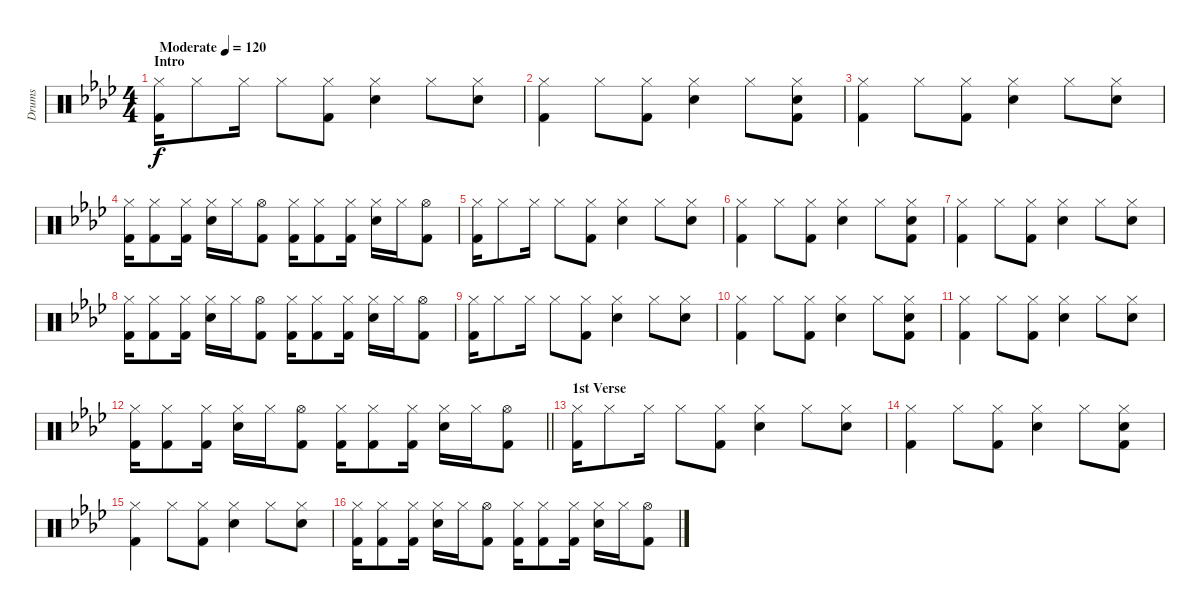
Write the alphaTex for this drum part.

\track ("Drums" "Drums") {instrument percussion}
\staff {score}
\articulation defaults
\ts (4 4)
\section ("" "Intro")
\tempo (120 "Moderate")
\clef neutral
\ks fminor
("Hi-Hat (closed)" "Kick (hit) 2").16{dy f} "Hi-Hat (closed)".8 "Hi-Hat (closed)".16 "Hi-Hat (closed)".8 ("Hi-Hat (closed)" "Kick (hit) 2").8 ("Hi-Hat (closed)" "Snare (hit) 2").4 "Hi-Hat (closed)".8 ("Hi-Hat (closed)" "Snare (hit) 2").8 |
("Hi-Hat (closed)" "Kick (hit) 2").4 "Hi-Hat (closed)".8 ("Hi-Hat (closed)" "Kick (hit) 2").8 ("Hi-Hat (closed)" "Snare (hit) 2").4 "Hi-Hat (closed)".8 ("Hi-Hat (closed)" "Snare (hit) 2" "Kick (hit) 2").8 |
("Hi-Hat (closed)" "Kick (hit) 2").4 "Hi-Hat (closed)".8 ("Hi-Hat (closed)" "Kick (hit) 2").8 ("Hi-Hat (closed)" "Snare (hit) 2").4 "Hi-Hat (closed)".8 ("Hi-Hat (closed)" "Snare (hit) 2").8 |
("Hi-Hat (closed)" "Kick (hit) 2").16 ("Hi-Hat (closed)" "Kick (hit) 2").8 ("Hi-Hat (closed)" "Kick (hit) 2").16 ("Hi-Hat (closed)" "Snare (hit) 2").16 "Hi-Hat (closed)".16 ("Hi-Hat (open)" "Kick (hit) 2").8 ("Hi-Hat (closed)" "Kick (hit) 2").16 ("Hi-Hat (closed)" "Kick (hit) 2").8 ("Hi-Hat (closed)" "Kick (hit) 2").16 ("Hi-Hat (closed)" "Snare (hit) 2").16 "Hi-Hat (closed)".16 ("Hi-Hat (open)" "Kick (hit) 2").8 |
("Hi-Hat (closed)" "Kick (hit) 2").16 "Hi-Hat (closed)".8 "Hi-Hat (closed)".16 "Hi-Hat (closed)".8 ("Hi-Hat (closed)" "Kick (hit) 2").8 ("Hi-Hat (closed)" "Snare (hit) 2").4 "Hi-Hat (closed)".8 ("Hi-Hat (closed)" "Snare (hit) 2").8 |
("Hi-Hat (closed)" "Kick (hit) 2").4 "Hi-Hat (closed)".8 ("Hi-Hat (closed)" "Kick (hit) 2").8 ("Hi-Hat (closed)" "Snare (hit) 2").4 "Hi-Hat (closed)".8 ("Hi-Hat (closed)" "Snare (hit) 2" "Kick (hit) 2").8 |
("Hi-Hat (closed)" "Kick (hit) 2").4 "Hi-Hat (closed)".8 ("Hi-Hat (closed)" "Kick (hit) 2").8 ("Hi-Hat (closed)" "Snare (hit) 2").4 "Hi-Hat (closed)".8 ("Hi-Hat (closed)" "Snare (hit) 2").8 |
("Hi-Hat (closed)" "Kick (hit) 2").16 ("Hi-Hat (closed)" "Kick (hit) 2").8 ("Hi-Hat (closed)" "Kick (hit) 2").16 ("Hi-Hat (closed)" "Snare (hit) 2").16 "Hi-Hat (closed)".16 ("Hi-Hat (open)" "Kick (hit) 2").8 ("Hi-Hat (closed)" "Kick (hit) 2").16 ("Hi-Hat (closed)" "Kick (hit) 2").8 ("Hi-Hat (closed)" "Kick (hit) 2").16 ("Hi-Hat (closed)" "Snare (hit) 2").16 "Hi-Hat (closed)".16 ("Hi-Hat (open)" "Kick (hit) 2").8 |
("Hi-Hat (closed)" "Kick (hit) 2").16 "Hi-Hat (closed)".8 "Hi-Hat (closed)".16 "Hi-Hat (closed)".8 ("Hi-Hat (closed)" "Kick (hit) 2").8 ("Hi-Hat (closed)" "Snare (hit) 2").4 "Hi-Hat (closed)".8 ("Hi-Hat (closed)" "Snare (hit) 2").8 |
("Hi-Hat (closed)" "Kick (hit) 2").4 "Hi-Hat (closed)".8 ("Hi-Hat (closed)" "Kick (hit) 2").8 ("Hi-Hat (closed)" "Snare (hit) 2").4 "Hi-Hat (closed)".8 ("Hi-Hat (closed)" "Snare (hit) 2" "Kick (hit) 2").8 |
("Hi-Hat (closed)" "Kick (hit) 2").4 "Hi-Hat (closed)".8 ("Hi-Hat (closed)" "Kick (hit) 2").8 ("Hi-Hat (closed)" "Snare (hit) 2").4 "Hi-Hat (closed)".8 ("Hi-Hat (closed)" "Snare (hit) 2").8 |
\barLineRight lightlight
("Hi-Hat (closed)" "Kick (hit) 2").16 ("Hi-Hat (closed)" "Kick (hit) 2").8 ("Hi-Hat (closed)" "Kick (hit) 2").16 ("Hi-Hat (closed)" "Snare (hit) 2").16 "Hi-Hat (closed)".16 ("Hi-Hat (open)" "Kick (hit) 2").8 ("Hi-Hat (closed)" "Kick (hit) 2").16 ("Hi-Hat (closed)" "Kick (hit) 2").8 ("Hi-Hat (closed)" "Kick (hit) 2").16 ("Hi-Hat (closed)" "Snare (hit) 2").16 "Hi-Hat (closed)".16 ("Hi-Hat (open)" "Kick (hit) 2").8 |
\section ("" "1st Verse")
("Hi-Hat (closed)" "Kick (hit) 2").16 "Hi-Hat (closed)".8 "Hi-Hat (closed)".16 "Hi-Hat (closed)".8 ("Hi-Hat (closed)" "Kick (hit) 2").8 ("Hi-Hat (closed)" "Snare (hit) 2").4 "Hi-Hat (closed)".8 ("Hi-Hat (closed)" "Snare (hit) 2").8 |
("Hi-Hat (closed)" "Kick (hit) 2").4 "Hi-Hat (closed)".8 ("Hi-Hat (closed)" "Kick (hit) 2").8 ("Hi-Hat (closed)" "Snare (hit) 2").4 "Hi-Hat (closed)".8 ("Hi-Hat (closed)" "Snare (hit) 2" "Kick (hit) 2").8 |
("Hi-Hat (closed)" "Kick (hit) 2").4 "Hi-Hat (closed)".8 ("Hi-Hat (closed)" "Kick (hit) 2").8 ("Hi-Hat (closed)" "Snare (hit) 2").4 "Hi-Hat (closed)".8 ("Hi-Hat (closed)" "Snare (hit) 2").8 |
("Hi-Hat (closed)" "Kick (hit) 2").16 ("Hi-Hat (closed)" "Kick (hit) 2").8 ("Hi-Hat (closed)" "Kick (hit) 2").16 ("Hi-Hat (closed)" "Snare (hit) 2").16 "Hi-Hat (closed)".16 ("Hi-Hat (open)" "Kick (hit) 2").8 ("Hi-Hat (closed)" "Kick (hit) 2").16 ("Hi-Hat (closed)" "Kick (hit) 2").8 ("Hi-Hat (closed)" "Kick (hit) 2").16 ("Hi-Hat (closed)" "Snare (hit) 2").16 "Hi-Hat (closed)".16 ("Hi-Hat (open)" "Kick (hit) 2").8
